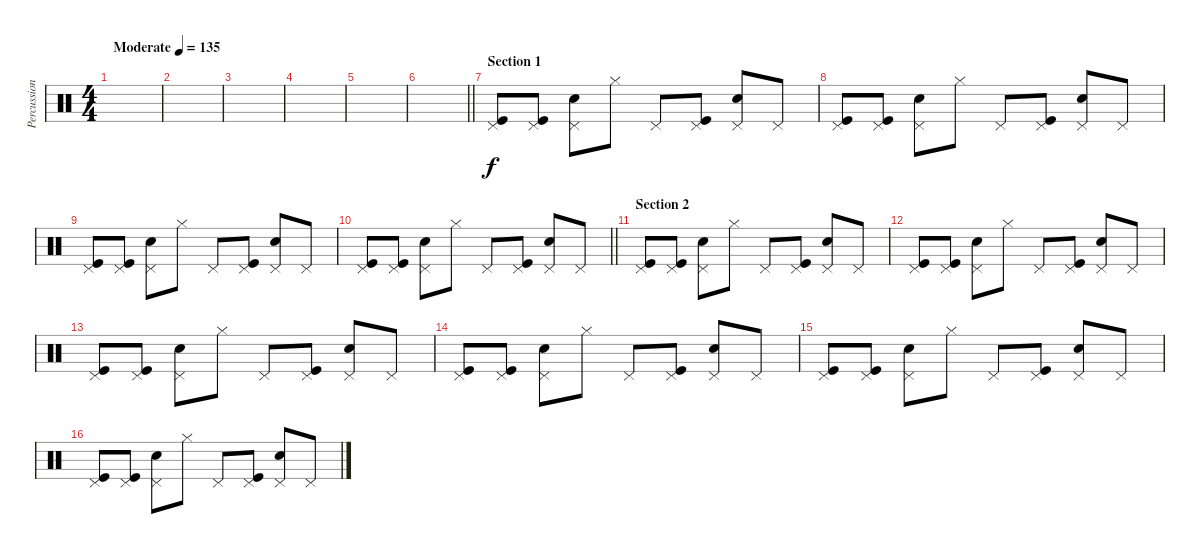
\track ("Percussion" "Percussion") {instrument percussion}
\staff {score}
\articulation defaults
\ts (4 4)
\tempo (135 "Moderate")
\clef neutral
\ks c
|
|
|
|
|
\barLineRight lightlight
|
\section ("" "Section 1")
("Pedal Hi-Hat (hit)" "Kick (hit)").8 ("Pedal Hi-Hat (hit)" "Kick (hit)").8 ("Pedal Hi-Hat (hit)" "Snare (hit) 2").8 "Hi-Hat (closed)".8 "Pedal Hi-Hat (hit)".8 ("Pedal Hi-Hat (hit)" "Kick (hit)").8 ("Pedal Hi-Hat (hit)" "Snare (hit) 2").8 "Pedal Hi-Hat (hit)".8 |
("Pedal Hi-Hat (hit)" "Kick (hit)").8 ("Pedal Hi-Hat (hit)" "Kick (hit)").8 ("Pedal Hi-Hat (hit)" "Snare (hit) 2").8 "Hi-Hat (closed)".8 "Pedal Hi-Hat (hit)".8 ("Pedal Hi-Hat (hit)" "Kick (hit)").8 ("Pedal Hi-Hat (hit)" "Snare (hit) 2").8 "Pedal Hi-Hat (hit)".8 |
("Pedal Hi-Hat (hit)" "Kick (hit)").8 ("Pedal Hi-Hat (hit)" "Kick (hit)").8 ("Pedal Hi-Hat (hit)" "Snare (hit) 2").8 "Hi-Hat (closed)".8 "Pedal Hi-Hat (hit)".8 ("Pedal Hi-Hat (hit)" "Kick (hit)").8 ("Pedal Hi-Hat (hit)" "Snare (hit) 2").8 "Pedal Hi-Hat (hit)".8 |
\barLineRight lightlight
("Pedal Hi-Hat (hit)" "Kick (hit)").8 ("Pedal Hi-Hat (hit)" "Kick (hit)").8 ("Pedal Hi-Hat (hit)" "Snare (hit) 2").8 "Hi-Hat (closed)".8 "Pedal Hi-Hat (hit)".8 ("Pedal Hi-Hat (hit)" "Kick (hit)").8 ("Pedal Hi-Hat (hit)" "Snare (hit) 2").8 "Pedal Hi-Hat (hit)".8 |
\section ("" "Section 2")
("Pedal Hi-Hat (hit)" "Kick (hit)").8 ("Pedal Hi-Hat (hit)" "Kick (hit)").8 ("Pedal Hi-Hat (hit)" "Snare (hit) 2").8 "Hi-Hat (closed)".8 "Pedal Hi-Hat (hit)".8 ("Pedal Hi-Hat (hit)" "Kick (hit)").8 ("Pedal Hi-Hat (hit)" "Snare (hit) 2").8 "Pedal Hi-Hat (hit)".8 |
("Pedal Hi-Hat (hit)" "Kick (hit)").8 ("Pedal Hi-Hat (hit)" "Kick (hit)").8 ("Pedal Hi-Hat (hit)" "Snare (hit) 2").8 "Hi-Hat (closed)".8 "Pedal Hi-Hat (hit)".8 ("Pedal Hi-Hat (hit)" "Kick (hit)").8 ("Pedal Hi-Hat (hit)" "Snare (hit) 2").8 "Pedal Hi-Hat (hit)".8 |
("Pedal Hi-Hat (hit)" "Kick (hit)").8 ("Pedal Hi-Hat (hit)" "Kick (hit)").8 ("Pedal Hi-Hat (hit)" "Snare (hit) 2").8 "Hi-Hat (closed)".8 "Pedal Hi-Hat (hit)".8 ("Pedal Hi-Hat (hit)" "Kick (hit)").8 ("Pedal Hi-Hat (hit)" "Snare (hit) 2").8 "Pedal Hi-Hat (hit)".8 |
("Pedal Hi-Hat (hit)" "Kick (hit)").8 ("Pedal Hi-Hat (hit)" "Kick (hit)").8 ("Pedal Hi-Hat (hit)" "Snare (hit) 2").8 "Hi-Hat (closed)".8 "Pedal Hi-Hat (hit)".8 ("Pedal Hi-Hat (hit)" "Kick (hit)").8 ("Pedal Hi-Hat (hit)" "Snare (hit) 2").8 "Pedal Hi-Hat (hit)".8 |
("Pedal Hi-Hat (hit)" "Kick (hit)").8 ("Pedal Hi-Hat (hit)" "Kick (hit)").8 ("Pedal Hi-Hat (hit)" "Snare (hit) 2").8 "Hi-Hat (closed)".8 "Pedal Hi-Hat (hit)".8 ("Pedal Hi-Hat (hit)" "Kick (hit)").8 ("Pedal Hi-Hat (hit)" "Snare (hit) 2").8 "Pedal Hi-Hat (hit)".8 |
("Pedal Hi-Hat (hit)" "Kick (hit)").8 ("Pedal Hi-Hat (hit)" "Kick (hit)").8 ("Pedal Hi-Hat (hit)" "Snare (hit) 2").8 "Hi-Hat (closed)".8 "Pedal Hi-Hat (hit)".8 ("Pedal Hi-Hat (hit)" "Kick (hit)").8 ("Pedal Hi-Hat (hit)" "Snare (hit) 2").8 "Pedal Hi-Hat (hit)".8
